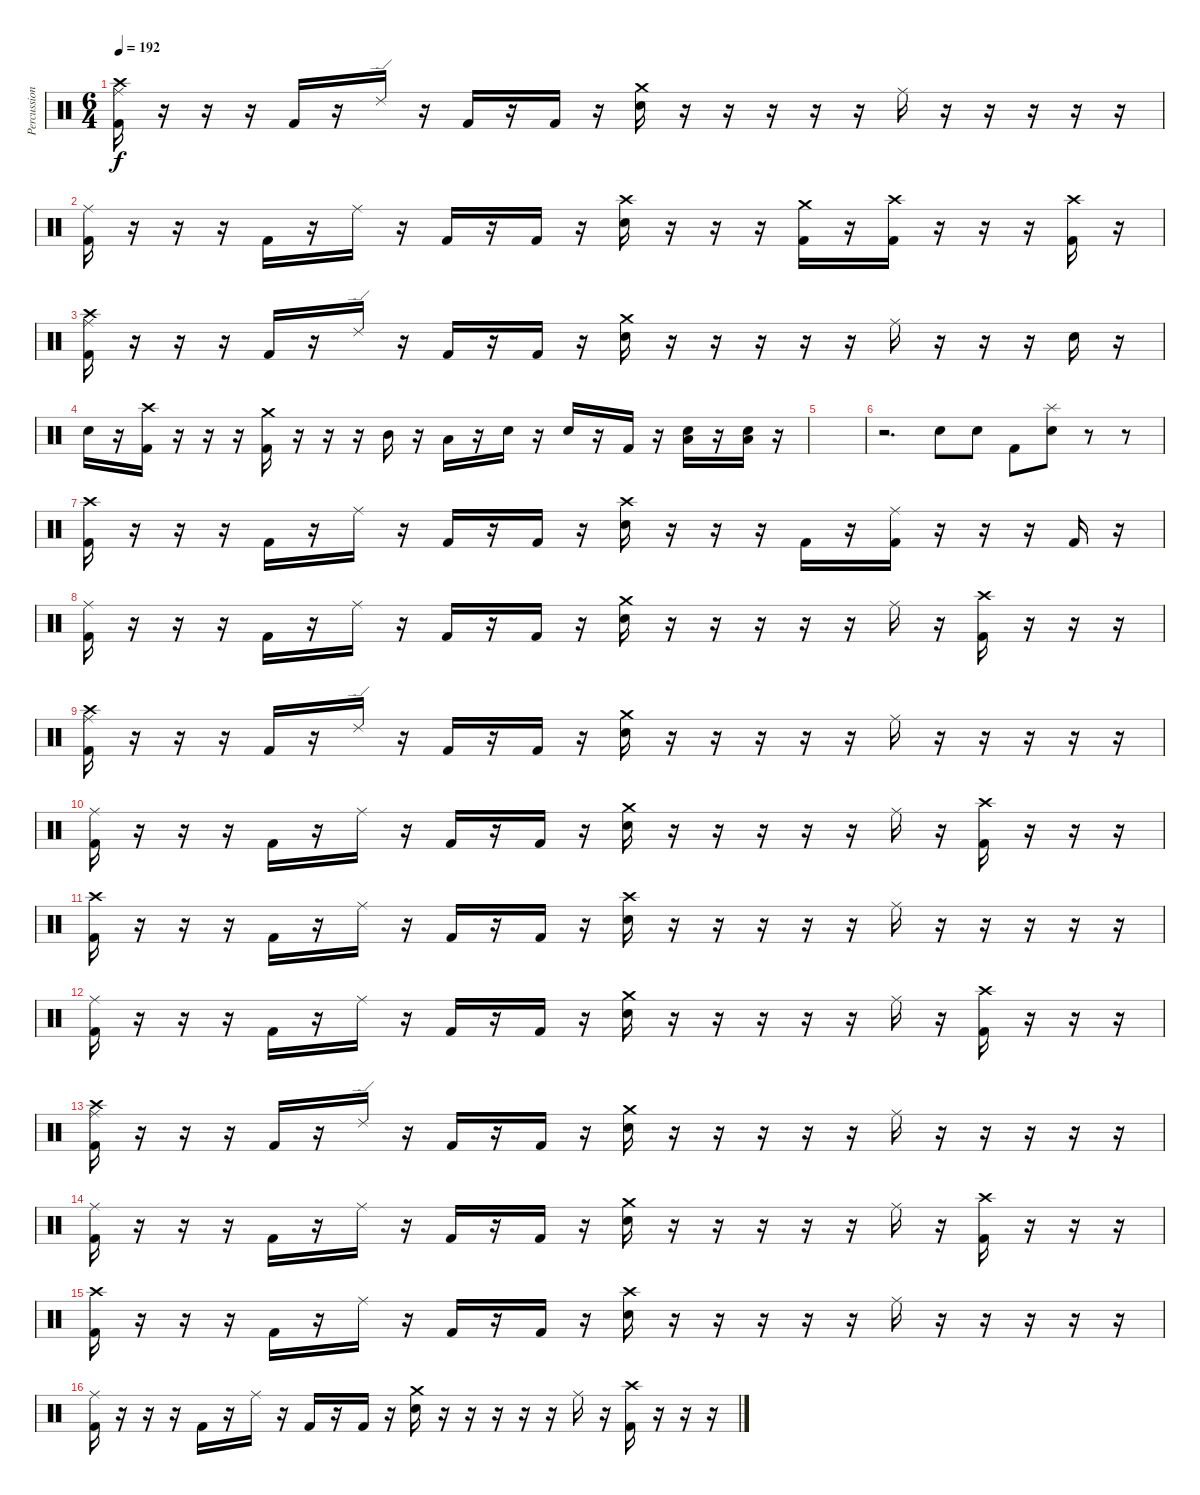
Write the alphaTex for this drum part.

\track ("Percussion" "Percussion") {instrument percussion}
\staff {score}
\articulation defaults
\ts (6 4)
\tempo 192
\clef neutral
\ks c
("Crash high (hit)" "Ride (middle)" "Kick (hit) 2").16{dy f} r.16 r.16 r.16 "Kick (hit) 2".16 r.16 "Ride (edge) 2".16 r.16 "Kick (hit) 2".16 r.16 "Kick (hit) 2".16 r.16 ("Crash medium (hit)" "Snare (hit) 2").16 r.16 r.16 r.16 r.16 r.16 "Ride (middle)".16 r.16 r.16 r.16 r.16 r.16 |
("Ride (middle)" "Kick (hit) 2").16 r.16 r.16 r.16 "Kick (hit) 2".16 r.16 "Ride (middle)".16 r.16 "Kick (hit) 2".16 r.16 "Kick (hit) 2".16 r.16 ("Crash high (hit)" "Snare (hit) 2").16 r.16 r.16 r.16 ("Crash medium (hit)" "Kick (hit) 2").16 r.16 ("Crash high (hit)" "Kick (hit) 2").16 r.16 r.16 r.16 ("Crash high (hit)" "Kick (hit) 2").16 r.16 |
("Crash high (hit)" "Ride (middle)" "Kick (hit) 2").16 r.16 r.16 r.16 "Kick (hit) 2".16 r.16 "Ride (edge) 2".16 r.16 "Kick (hit) 2".16 r.16 "Kick (hit) 2".16 r.16 ("Crash medium (hit)" "Snare (hit) 2").16 r.16 r.16 r.16 r.16 r.16 "Ride (middle)".16 r.16 r.16 r.16 "Snare (hit) 2".16 r.16 |
"Snare (hit) 2".16 r.16 ("Crash high (hit)" "Kick (hit) 2").16 r.16 r.16 r.16 ("Crash medium (hit)" "Kick (hit) 2").16 r.16 r.16 r.16 "Mid Tom (hit)".16 r.16 "Low Tom (hit)".16 r.16 "Snare (hit) 2".16 r.16 "Snare (hit) 2".16 r.16 "Kick (hit) 2".16 r.16 ("Low Tom (hit)" "Snare (hit) 2").16 r.16 ("Low Tom (hit)" "Snare (hit) 2").16 r.16 |
|
r.2{d} "Snare (hit) 2".8 "Snare (hit) 2".8 "Kick (hit) 2".8 ("Splash (hit)" "Snare (hit) 2").8 r.8 r.8 |
("Crash high (hit)" "Kick (hit) 2").16 r.16 r.16 r.16 "Kick (hit) 2".16 r.16 "Ride (middle)".16 r.16 "Kick (hit) 2".16 r.16 "Kick (hit) 2".16 r.16 ("Crash high (hit)" "Snare (hit) 2").16 r.16 r.16 r.16 "Kick (hit) 2".16 r.16 ("Ride (middle)" "Kick (hit) 2").16 r.16 r.16 r.16 "Kick (hit) 2".16 r.16 |
("Ride (middle)" "Kick (hit) 2").16 r.16 r.16 r.16 "Kick (hit) 2".16 r.16 "Ride (middle)".16 r.16 "Kick (hit) 2".16 r.16 "Kick (hit) 2".16 r.16 ("Crash medium (hit)" "Snare (hit) 2").16 r.16 r.16 r.16 r.16 r.16 "Ride (middle)".16 r.16 ("Crash high (hit)" "Kick (hit) 2").16 r.16 r.16 r.16 |
("Crash high (hit)" "Ride (middle)" "Kick (hit) 2").16 r.16 r.16 r.16 "Kick (hit) 2".16 r.16 "Ride (edge) 2".16 r.16 "Kick (hit) 2".16 r.16 "Kick (hit) 2".16 r.16 ("Crash medium (hit)" "Snare (hit) 2").16 r.16 r.16 r.16 r.16 r.16 "Ride (middle)".16 r.16 r.16 r.16 r.16 r.16 |
("Ride (middle)" "Kick (hit) 2").16 r.16 r.16 r.16 "Kick (hit) 2".16 r.16 "Ride (middle)".16 r.16 "Kick (hit) 2".16 r.16 "Kick (hit) 2".16 r.16 ("Crash medium (hit)" "Snare (hit) 2").16 r.16 r.16 r.16 r.16 r.16 "Ride (middle)".16 r.16 ("Crash high (hit)" "Kick (hit) 2").16 r.16 r.16 r.16 |
("Crash high (hit)" "Kick (hit) 2").16 r.16 r.16 r.16 "Kick (hit) 2".16 r.16 "Ride (middle)".16 r.16 "Kick (hit) 2".16 r.16 "Kick (hit) 2".16 r.16 ("Crash high (hit)" "Snare (hit) 2").16 r.16 r.16 r.16 r.16 r.16 "Ride (middle)".16 r.16 r.16 r.16 r.16 r.16 |
("Ride (middle)" "Kick (hit) 2").16 r.16 r.16 r.16 "Kick (hit) 2".16 r.16 "Ride (middle)".16 r.16 "Kick (hit) 2".16 r.16 "Kick (hit) 2".16 r.16 ("Crash medium (hit)" "Snare (hit) 2").16 r.16 r.16 r.16 r.16 r.16 "Ride (middle)".16 r.16 ("Crash high (hit)" "Kick (hit) 2").16 r.16 r.16 r.16 |
("Crash high (hit)" "Ride (middle)" "Kick (hit) 2").16 r.16 r.16 r.16 "Kick (hit) 2".16 r.16 "Ride (edge) 2".16 r.16 "Kick (hit) 2".16 r.16 "Kick (hit) 2".16 r.16 ("Crash medium (hit)" "Snare (hit) 2").16 r.16 r.16 r.16 r.16 r.16 "Ride (middle)".16 r.16 r.16 r.16 r.16 r.16 |
("Ride (middle)" "Kick (hit) 2").16 r.16 r.16 r.16 "Kick (hit) 2".16 r.16 "Ride (middle)".16 r.16 "Kick (hit) 2".16 r.16 "Kick (hit) 2".16 r.16 ("Crash medium (hit)" "Snare (hit) 2").16 r.16 r.16 r.16 r.16 r.16 "Ride (middle)".16 r.16 ("Crash high (hit)" "Kick (hit) 2").16 r.16 r.16 r.16 |
("Crash high (hit)" "Kick (hit) 2").16 r.16 r.16 r.16 "Kick (hit) 2".16 r.16 "Ride (middle)".16 r.16 "Kick (hit) 2".16 r.16 "Kick (hit) 2".16 r.16 ("Crash high (hit)" "Snare (hit) 2").16 r.16 r.16 r.16 r.16 r.16 "Ride (middle)".16 r.16 r.16 r.16 r.16 r.16 |
("Ride (middle)" "Kick (hit) 2").16 r.16 r.16 r.16 "Kick (hit) 2".16 r.16 "Ride (middle)".16 r.16 "Kick (hit) 2".16 r.16 "Kick (hit) 2".16 r.16 ("Crash medium (hit)" "Snare (hit) 2").16 r.16 r.16 r.16 r.16 r.16 "Ride (middle)".16 r.16 ("Crash high (hit)" "Kick (hit) 2").16 r.16 r.16 r.16
